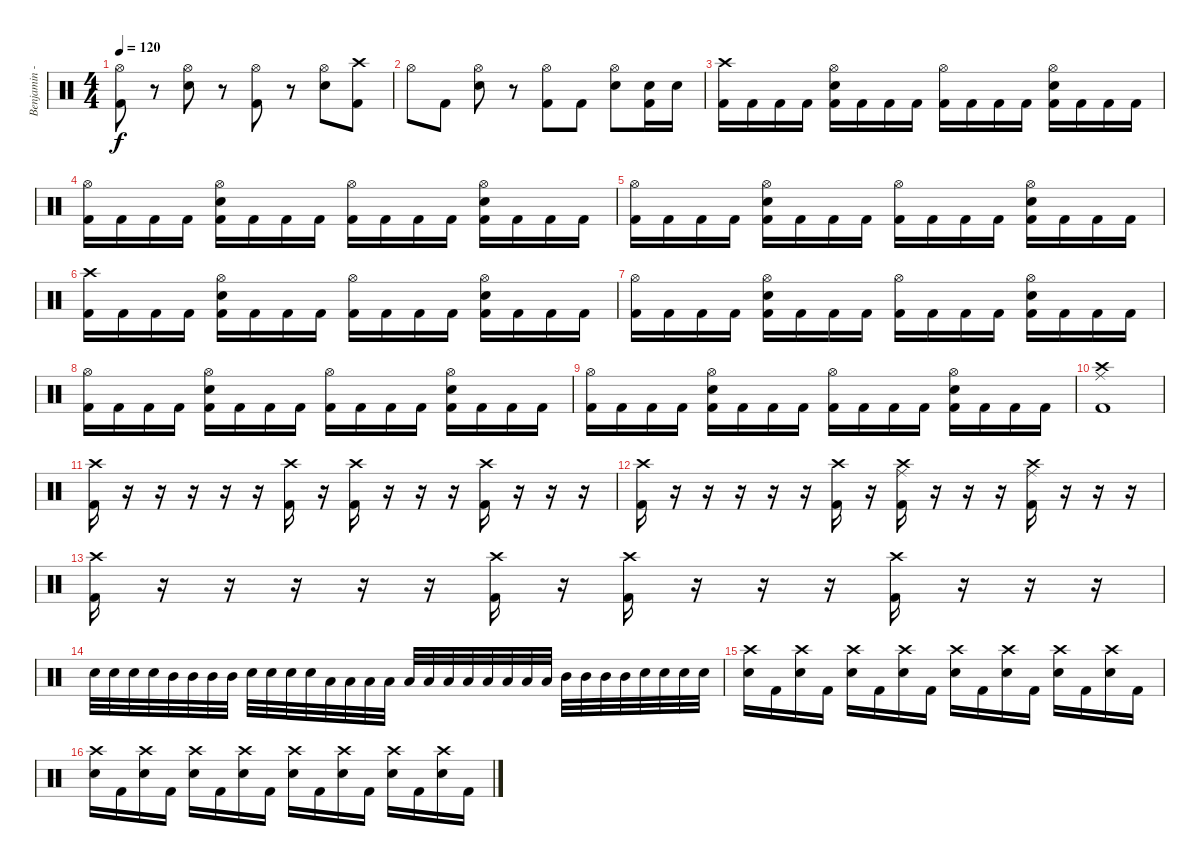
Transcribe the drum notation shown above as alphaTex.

\track ("Benjamin - Drums" "Benjamin -") {instrument percussion}
\staff {score}
\articulation defaults
\ts (4 4)
\tempo 120
\clef neutral
\ks c
("Hi-Hat (open)" "Kick (hit) 2").8{dy f} r.8 ("Hi-Hat (open)" "Snare (hit) 2").8 r.8 ("Hi-Hat (open)" "Kick (hit) 2").8 r.8 ("Hi-Hat (open)" "Snare (hit) 2").8 ("Crash high (hit)" "Kick (hit) 2").8 |
"Hi-Hat (open)".8 "Kick (hit) 2".8 ("Hi-Hat (open)" "Snare (hit) 2").8 r.8 ("Hi-Hat (open)" "Kick (hit) 2").8 "Kick (hit) 2".8 ("Hi-Hat (open)" "Snare (hit) 2").8 ("Snare (hit) 2" "Kick (hit) 2").16 "Snare (hit) 2".16 |
("Crash high (hit)" "Kick (hit) 2").16 "Kick (hit) 2".16 "Kick (hit) 2".16 "Kick (hit) 2".16 ("Hi-Hat (open)" "Snare (hit) 2" "Kick (hit) 2").16 "Kick (hit) 2".16 "Kick (hit) 2".16 "Kick (hit) 2".16 ("Hi-Hat (open)" "Kick (hit) 2").16 "Kick (hit) 2".16 "Kick (hit) 2".16 "Kick (hit) 2".16 ("Hi-Hat (open)" "Snare (hit) 2" "Kick (hit) 2").16 "Kick (hit) 2".16 "Kick (hit) 2".16 "Kick (hit) 2".16 |
("Hi-Hat (open)" "Kick (hit) 2").16 "Kick (hit) 2".16 "Kick (hit) 2".16 "Kick (hit) 2".16 ("Hi-Hat (open)" "Snare (hit) 2" "Kick (hit) 2").16 "Kick (hit) 2".16 "Kick (hit) 2".16 "Kick (hit) 2".16 ("Hi-Hat (open)" "Kick (hit) 2").16 "Kick (hit) 2".16 "Kick (hit) 2".16 "Kick (hit) 2".16 ("Hi-Hat (open)" "Snare (hit) 2" "Kick (hit) 2").16 "Kick (hit) 2".16 "Kick (hit) 2".16 "Kick (hit) 2".16 |
("Hi-Hat (open)" "Kick (hit) 2").16 "Kick (hit) 2".16 "Kick (hit) 2".16 "Kick (hit) 2".16 ("Hi-Hat (open)" "Snare (hit) 2" "Kick (hit) 2").16 "Kick (hit) 2".16 "Kick (hit) 2".16 "Kick (hit) 2".16 ("Hi-Hat (open)" "Kick (hit) 2").16 "Kick (hit) 2".16 "Kick (hit) 2".16 "Kick (hit) 2".16 ("Hi-Hat (open)" "Snare (hit) 2" "Kick (hit) 2").16 "Kick (hit) 2".16 "Kick (hit) 2".16 "Kick (hit) 2".16 |
("Crash high (hit)" "Kick (hit) 2").16 "Kick (hit) 2".16 "Kick (hit) 2".16 "Kick (hit) 2".16 ("Hi-Hat (open)" "Snare (hit) 2" "Kick (hit) 2").16 "Kick (hit) 2".16 "Kick (hit) 2".16 "Kick (hit) 2".16 ("Hi-Hat (open)" "Kick (hit) 2").16 "Kick (hit) 2".16 "Kick (hit) 2".16 "Kick (hit) 2".16 ("Hi-Hat (open)" "Snare (hit) 2" "Kick (hit) 2").16 "Kick (hit) 2".16 "Kick (hit) 2".16 "Kick (hit) 2".16 |
("Hi-Hat (open)" "Kick (hit) 2").16 "Kick (hit) 2".16 "Kick (hit) 2".16 "Kick (hit) 2".16 ("Hi-Hat (open)" "Snare (hit) 2" "Kick (hit) 2").16 "Kick (hit) 2".16 "Kick (hit) 2".16 "Kick (hit) 2".16 ("Hi-Hat (open)" "Kick (hit) 2").16 "Kick (hit) 2".16 "Kick (hit) 2".16 "Kick (hit) 2".16 ("Hi-Hat (open)" "Snare (hit) 2" "Kick (hit) 2").16 "Kick (hit) 2".16 "Kick (hit) 2".16 "Kick (hit) 2".16 |
("Hi-Hat (open)" "Kick (hit) 2").16 "Kick (hit) 2".16 "Kick (hit) 2".16 "Kick (hit) 2".16 ("Hi-Hat (open)" "Snare (hit) 2" "Kick (hit) 2").16 "Kick (hit) 2".16 "Kick (hit) 2".16 "Kick (hit) 2".16 ("Hi-Hat (open)" "Kick (hit) 2").16 "Kick (hit) 2".16 "Kick (hit) 2".16 "Kick (hit) 2".16 ("Hi-Hat (open)" "Snare (hit) 2" "Kick (hit) 2").16 "Kick (hit) 2".16 "Kick (hit) 2".16 "Kick (hit) 2".16 |
("Hi-Hat (open)" "Kick (hit) 2").16 "Kick (hit) 2".16 "Kick (hit) 2".16 "Kick (hit) 2".16 ("Hi-Hat (open)" "Snare (hit) 2" "Kick (hit) 2").16 "Kick (hit) 2".16 "Kick (hit) 2".16 "Kick (hit) 2".16 ("Hi-Hat (open)" "Kick (hit) 2").16 "Kick (hit) 2".16 "Kick (hit) 2".16 "Kick (hit) 2".16 ("Hi-Hat (open)" "Snare (hit) 2" "Kick (hit) 2").16 "Kick (hit) 2".16 "Kick (hit) 2".16 "Kick (hit) 2".16 |
("Crash high (hit)" "Ride (middle)" "Kick (hit) 2").1 |
("Crash high (hit)" "Kick (hit) 2").16 r.16 r.16 r.16 r.16 r.16 ("Crash high (hit)" "Kick (hit) 2").16 r.16 ("Crash high (hit)" "Kick (hit) 2").16 r.16 r.16 r.16 ("Crash high (hit)" "Kick (hit) 2").16 r.16 r.16 r.16 |
("Crash high (hit)" "Kick (hit) 2").16 r.16 r.16 r.16 r.16 r.16 ("Crash high (hit)" "Kick (hit) 2").16 r.16 ("Crash high (hit)" "Ride (middle)" "Kick (hit) 2").16 r.16 r.16 r.16 ("Crash high (hit)" "Ride (middle)" "Kick (hit) 2").16 r.16 r.16 r.16 |
("Crash high (hit)" "Kick (hit) 2").16 r.16 r.16 r.16 r.16 r.16 ("Crash high (hit)" "Kick (hit) 2").16 r.16 ("Crash high (hit)" "Kick (hit) 2").16 r.16 r.16 r.16 ("Crash high (hit)" "Kick (hit) 2").16 r.16 r.16 r.16 |
"Snare (hit) 2".32 "Snare (hit) 2".32 "Snare (hit) 2".32 "Snare (hit) 2".32 "Mid Tom (hit)".32 "Mid Tom (hit)".32 "Mid Tom (hit)".32 "Mid Tom (hit)".32 "Snare (hit) 2".32 "Snare (hit) 2".32 "Snare (hit) 2".32 "Snare (hit) 2".32 "Low Tom (hit)".32 "Low Tom (hit)".32 "Low Tom (hit)".32 "Low Tom (hit)".32 "Low Floor Tom (hit)".32 "Low Floor Tom (hit)".32 "Low Floor Tom (hit)".32 "Low Floor Tom (hit)".32 "Low Tom (hit)".32 "Low Tom (hit)".32 "Low Tom (hit)".32 "Low Tom (hit)".32 "Mid Tom (hit)".32 "Mid Tom (hit)".32 "Mid Tom (hit)".32 "Mid Tom (hit)".32 "Snare (hit) 2".32 "Snare (hit) 2".32 "Snare (hit) 2".32 "Snare (hit) 2".32 |
("Crash high (hit)" "Snare (hit) 2").16 "Kick (hit) 2".16 ("Crash high (hit)" "Snare (hit) 2").16 "Kick (hit) 2".16 ("Crash high (hit)" "Snare (hit) 2").16 "Kick (hit) 2".16 ("Crash high (hit)" "Snare (hit) 2").16 "Kick (hit) 2".16 ("Crash high (hit)" "Snare (hit) 2").16 "Kick (hit) 2".16 ("Crash high (hit)" "Snare (hit) 2").16 "Kick (hit) 2".16 ("Crash high (hit)" "Snare (hit) 2").16 "Kick (hit) 2".16 ("Crash high (hit)" "Snare (hit) 2").16 "Kick (hit) 2".16 |
("Crash high (hit)" "Snare (hit) 2").16 "Kick (hit) 2".16 ("Crash high (hit)" "Snare (hit) 2").16 "Kick (hit) 2".16 ("Crash high (hit)" "Snare (hit) 2").16 "Kick (hit) 2".16 ("Crash high (hit)" "Snare (hit) 2").16 "Kick (hit) 2".16 ("Crash high (hit)" "Snare (hit) 2").16 "Kick (hit) 2".16 ("Crash high (hit)" "Snare (hit) 2").16 "Kick (hit) 2".16 ("Crash high (hit)" "Snare (hit) 2").16 "Kick (hit) 2".16 ("Crash high (hit)" "Snare (hit) 2").16 "Kick (hit) 2".16
